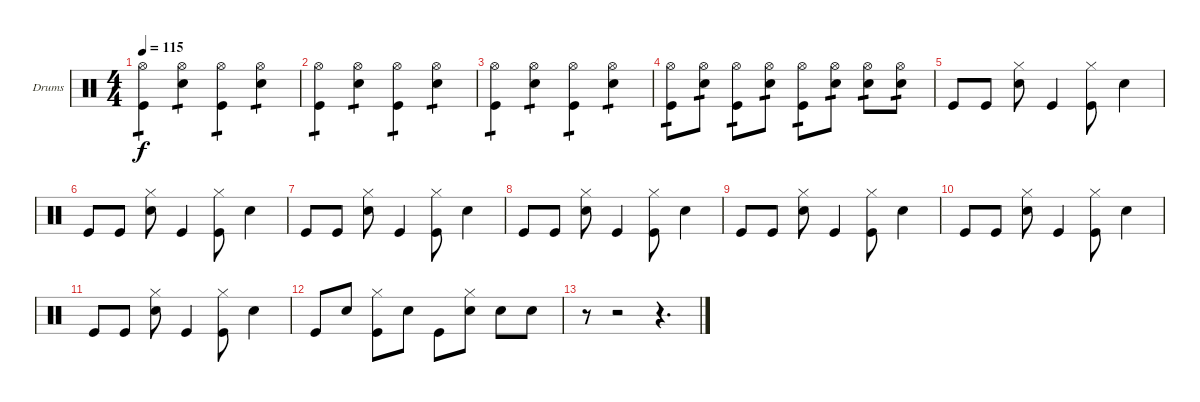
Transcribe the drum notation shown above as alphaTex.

\bracketExtendMode groupsimilarinstruments
\firstSystemTrackNameOrientation horizontal
\otherSystemsTrackNameOrientation horizontal
\track ("Drumkit" "Drums") {instrument percussion}
\staff {score}
\articulation defaults
\ts (4 4)
\tempo 115
\clef neutral
\scale
0.333333
\ks c
("Kick (hit)" "Hi-Hat (open)").4{tp 1 dy f} ("Snare (hit) 2" "Hi-Hat (open)").4{tp 1} ("Kick (hit)" "Hi-Hat (open)").4{tp 1} ("Snare (hit) 2" "Hi-Hat (open)").4{tp 1} |
\scale
0.333333 ("Kick (hit)" "Hi-Hat (open)").4{tp 1} ("Snare (hit) 2" "Hi-Hat (open)").4{tp 1} ("Kick (hit)" "Hi-Hat (open)").4{tp 1} ("Snare (hit) 2" "Hi-Hat (open)").4{tp 1} |
\scale
0.333333 ("Kick (hit)" "Hi-Hat (open)").4{tp 1} ("Snare (hit) 2" "Hi-Hat (open)").4{tp 1} ("Kick (hit)" "Hi-Hat (open)").4{tp 1} ("Snare (hit) 2" "Hi-Hat (open)").4{tp 1} |
\scale
0.333333 ("Kick (hit)" "Hi-Hat (open)").8{tp 1} ("Snare (hit) 2" "Hi-Hat (open)").8{tp 1} ("Kick (hit)" "Hi-Hat (open)").8{tp 1} ("Snare (hit) 2" "Hi-Hat (open)").8{tp 1} ("Kick (hit)" "Hi-Hat (open)").8{tp 1} ("Snare (hit) 2" "Hi-Hat (open)").8{tp 1} ("Snare (hit) 2" "Hi-Hat (open)").8{tp 1} ("Snare (hit) 2" "Hi-Hat (open)").8{tp 1} |
\scale
0.333333 "Kick (hit)".8 "Kick (hit)".8 ("Snare (hit) 2" "Hi-Hat (closed)").8 "Kick (hit)".4 ("Kick (hit)" "Hi-Hat (closed)").8 "Snare (hit) 2".4 |
\scale
0.333333 "Kick (hit)".8 "Kick (hit)".8 ("Snare (hit) 2" "Hi-Hat (closed)").8 "Kick (hit)".4 ("Kick (hit)" "Hi-Hat (closed)").8 "Snare (hit) 2".4 |
\scale
0.333333 "Kick (hit)".8 "Kick (hit)".8 ("Snare (hit) 2" "Hi-Hat (closed)").8 "Kick (hit)".4 ("Kick (hit)" "Hi-Hat (closed)").8 "Snare (hit) 2".4 |
\scale
0.333333 "Kick (hit)".8 "Kick (hit)".8 ("Snare (hit) 2" "Hi-Hat (closed)").8 "Kick (hit)".4 ("Kick (hit)" "Hi-Hat (closed)").8 "Snare (hit) 2".4 |
\scale
0.333333 "Kick (hit)".8 "Kick (hit)".8 ("Snare (hit) 2" "Hi-Hat (closed)").8 "Kick (hit)".4 ("Kick (hit)" "Hi-Hat (closed)").8 "Snare (hit) 2".4 |
\scale
0.333333 "Kick (hit)".8 "Kick (hit)".8 ("Snare (hit) 2" "Hi-Hat (closed)").8 "Kick (hit)".4 ("Kick (hit)" "Hi-Hat (closed)").8 "Snare (hit) 2".4 |
\scale
0.333333 "Kick (hit)".8 "Kick (hit)".8 ("Snare (hit) 2" "Hi-Hat (closed)").8 "Kick (hit)".4 ("Kick (hit)" "Hi-Hat (closed)").8 "Snare (hit) 2".4 |
\scale
0.333333 "Kick (hit)".8 "Snare (hit) 2".8 ("Kick (hit)" "Hi-Hat (closed)").8 "Snare (hit) 2".8 "Kick (hit)".8 ("Snare (hit) 2" "Hi-Hat (closed)").8 "Snare (hit) 2".8 "Snare (hit) 2".8 |
\scale
0.333333 r.8 r.2 r.4{d} |
\scale
0.333333
